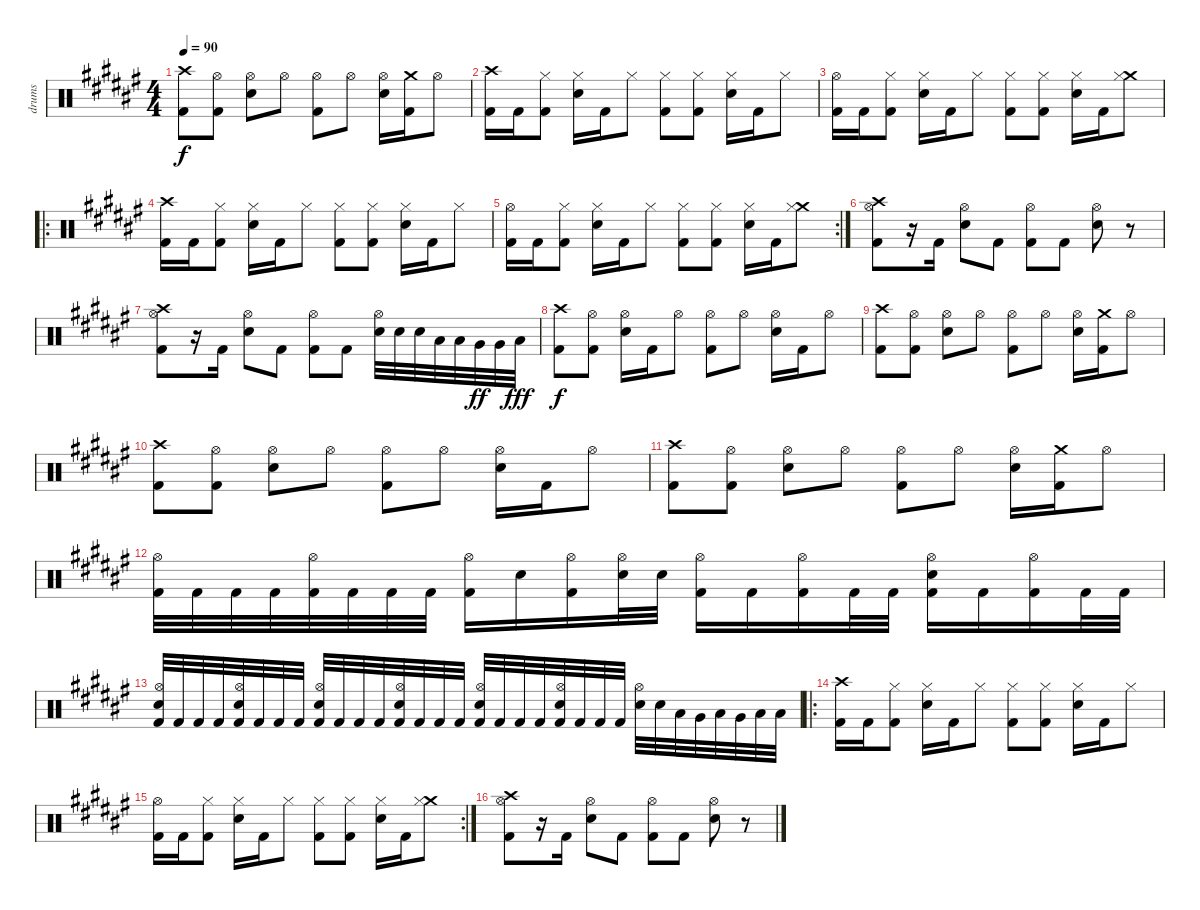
\track ("drums" "drums") {instrument percussion}
\staff {score}
\articulation defaults
\ts (4 4)
\tempo 90
\clef neutral
\ks d#minor
("Crash high (hit)" "Kick (hit) 2").8{dy f} ("Hi-Hat (open)" "Kick (hit) 2").8 ("Hi-Hat (open)" "Electric Snare (hit)").8 "Hi-Hat (open)".8 ("Hi-Hat (open)" "Kick (hit) 2").8 "Hi-Hat (open)".8 ("Hi-Hat (open)" "Electric Snare (hit)").16 ("Crash medium (hit)" "Kick (hit) 2").16 "Hi-Hat (open)".8 |
("Crash high (hit)" "Kick (hit) 2").16 "Kick (hit) 2".16 ("Hi-Hat (closed)" "Kick (hit) 2").8 ("Hi-Hat (closed)" "Electric Snare (hit)").16 "Kick (hit) 2".16 "Hi-Hat (closed)".8 ("Hi-Hat (closed)" "Kick (hit) 2").8 ("Hi-Hat (closed)" "Kick (hit) 2").8 ("Hi-Hat (closed)" "Electric Snare (hit)").16 "Kick (hit) 2".16 "Hi-Hat (closed)".8 |
("Hi-Hat (open)" "Kick (hit) 2").16 "Kick (hit) 2".16 ("Hi-Hat (closed)" "Kick (hit) 2").8 ("Hi-Hat (closed)" "Electric Snare (hit)").16 "Kick (hit) 2".16 "Hi-Hat (closed)".8 ("Hi-Hat (closed)" "Kick (hit) 2").8 ("Hi-Hat (closed)" "Kick (hit) 2").8 ("Hi-Hat (closed)" "Electric Snare (hit)").16 "Kick (hit) 2".16 ("Crash medium (hit)" "Hi-Hat (closed)").8 |
\ro
("Crash high (hit)" "Kick (hit) 2").16 "Kick (hit) 2".16 ("Hi-Hat (closed)" "Kick (hit) 2").8 ("Hi-Hat (closed)" "Electric Snare (hit)").16 "Kick (hit) 2".16 "Hi-Hat (closed)".8 ("Hi-Hat (closed)" "Kick (hit) 2").8 ("Hi-Hat (closed)" "Kick (hit) 2").8 ("Hi-Hat (closed)" "Electric Snare (hit)").16 "Kick (hit) 2".16 "Hi-Hat (closed)".8 |
\rc 2
("Hi-Hat (open)" "Kick (hit) 2").16 "Kick (hit) 2".16 ("Hi-Hat (closed)" "Kick (hit) 2").8 ("Hi-Hat (closed)" "Electric Snare (hit)").16 "Kick (hit) 2".16 "Hi-Hat (closed)".8 ("Hi-Hat (closed)" "Kick (hit) 2").8 ("Hi-Hat (closed)" "Kick (hit) 2").8 ("Hi-Hat (closed)" "Electric Snare (hit)").16 "Kick (hit) 2".16 ("Crash medium (hit)" "Hi-Hat (closed)").8 |
("Crash high (hit)" "Hi-Hat (open)" "Kick (hit) 2").8 r.16 "Kick (hit) 2".16 ("Hi-Hat (open)" "Electric Snare (hit)").8 "Kick (hit) 2".8 ("Hi-Hat (open)" "Kick (hit) 2").8 "Kick (hit) 2".8 ("Hi-Hat (open)" "Electric Snare (hit)").8 r.8 |
("Crash high (hit)" "Hi-Hat (open)" "Kick (hit) 2").8 r.16 "Kick (hit) 2".16 ("Hi-Hat (open)" "Electric Snare (hit)").8 "Kick (hit) 2".8 ("Hi-Hat (open)" "Kick (hit) 2").8 "Kick (hit) 2".8 ("Hi-Hat (open)" "Electric Snare (hit)").32 "Electric Snare (hit)".32 "Electric Snare (hit)".32 "Low Tom (hit)".32 "Low Tom (hit)".32 "Very Low Tom (hit)".32{dy ff} "Very Low Tom (hit)".32 "Low Floor Tom (hit)".32{dy fff} |
("Crash high (hit)" "Kick (hit) 2").8{dy f} ("Hi-Hat (open)" "Kick (hit) 2").8 ("Hi-Hat (open)" "Electric Snare (hit)").16 "Kick (hit) 2".16 "Hi-Hat (open)".8 ("Hi-Hat (open)" "Kick (hit) 2").8 "Hi-Hat (open)".8 ("Hi-Hat (open)" "Electric Snare (hit)").16 "Kick (hit) 2".16 "Hi-Hat (open)".8 |
("Crash high (hit)" "Kick (hit) 2").8 ("Hi-Hat (open)" "Kick (hit) 2").8 ("Hi-Hat (open)" "Electric Snare (hit)").8 "Hi-Hat (open)".8 ("Hi-Hat (open)" "Kick (hit) 2").8 "Hi-Hat (open)".8 ("Hi-Hat (open)" "Electric Snare (hit)").16 ("Crash medium (hit)" "Kick (hit) 2").16 "Hi-Hat (open)".8 |
("Crash high (hit)" "Kick (hit) 2").8 ("Hi-Hat (open)" "Kick (hit) 2").8 ("Hi-Hat (open)" "Electric Snare (hit)").8 "Hi-Hat (open)".8 ("Hi-Hat (open)" "Kick (hit) 2").8 "Hi-Hat (open)".8 ("Hi-Hat (open)" "Electric Snare (hit)").16 "Kick (hit) 2".16 "Hi-Hat (open)".8 |
("Crash high (hit)" "Kick (hit) 2").8 ("Hi-Hat (open)" "Kick (hit) 2").8 ("Hi-Hat (open)" "Electric Snare (hit)").8 "Hi-Hat (open)".8 ("Hi-Hat (open)" "Kick (hit) 2").8 "Hi-Hat (open)".8 ("Hi-Hat (open)" "Electric Snare (hit)").16 ("Crash medium (hit)" "Kick (hit) 2").16 "Hi-Hat (open)".8 |
("Hi-Hat (open)" "Kick (hit) 2").32 "Kick (hit) 2".32 "Kick (hit) 2".32 "Kick (hit) 2".32 ("Hi-Hat (open)" "Kick (hit) 2").32 "Kick (hit) 2".32 "Kick (hit) 2".32 "Kick (hit) 2".32 ("Hi-Hat (open)" "Kick (hit) 2").16 "Electric Snare (hit)".16 ("Hi-Hat (open)" "Kick (hit) 2").16 ("Hi-Hat (open)" "Electric Snare (hit)").32 "Electric Snare (hit)".32 ("Hi-Hat (open)" "Kick (hit) 2").16 "Kick (hit) 2".16 ("Hi-Hat (open)" "Kick (hit) 2").16 "Kick (hit) 2".32 "Kick (hit) 2".32 ("Hi-Hat (open)" "Electric Snare (hit)" "Kick (hit) 2").16 "Kick (hit) 2".16 ("Hi-Hat (open)" "Kick (hit) 2").16 "Kick (hit) 2".32 "Kick (hit) 2".32 |
("Hi-Hat (open)" "Electric Snare (hit)" "Kick (hit) 2").32 "Kick (hit) 2".32 "Kick (hit) 2".32 "Kick (hit) 2".32 ("Hi-Hat (open)" "Electric Snare (hit)" "Kick (hit) 2").32 "Kick (hit) 2".32 "Kick (hit) 2".32 "Kick (hit) 2".32 ("Hi-Hat (open)" "Electric Snare (hit)" "Kick (hit) 2").32 "Kick (hit) 2".32 "Kick (hit) 2".32 "Kick (hit) 2".32 ("Hi-Hat (open)" "Electric Snare (hit)" "Kick (hit) 2").32 "Kick (hit) 2".32 "Kick (hit) 2".32 "Kick (hit) 2".32 ("Hi-Hat (open)" "Electric Snare (hit)" "Kick (hit) 2").32 "Kick (hit) 2".32 "Kick (hit) 2".32 "Kick (hit) 2".32 ("Hi-Hat (open)" "Electric Snare (hit)" "Kick (hit) 2").32 "Kick (hit) 2".32 "Kick (hit) 2".32 "Kick (hit) 2".32 ("Hi-Hat (open)" "Electric Snare (hit)").32 "Electric Snare (hit)".32 "Low Tom (hit)".32 "Very Low Tom (hit)".32 "Low Tom (hit)".32 "Very Low Tom (hit)".32 "Low Floor Tom (hit)".32 "Low Floor Tom (hit)".32 |
\ro
("Crash high (hit)" "Kick (hit) 2").16 "Kick (hit) 2".16 ("Hi-Hat (closed)" "Kick (hit) 2").8 ("Hi-Hat (closed)" "Electric Snare (hit)").16 "Kick (hit) 2".16 "Hi-Hat (closed)".8 ("Hi-Hat (closed)" "Kick (hit) 2").8 ("Hi-Hat (closed)" "Kick (hit) 2").8 ("Hi-Hat (closed)" "Electric Snare (hit)").16 "Kick (hit) 2".16 "Hi-Hat (closed)".8 |
\rc 2
("Hi-Hat (open)" "Kick (hit) 2").16 "Kick (hit) 2".16 ("Hi-Hat (closed)" "Kick (hit) 2").8 ("Hi-Hat (closed)" "Electric Snare (hit)").16 "Kick (hit) 2".16 "Hi-Hat (closed)".8 ("Hi-Hat (closed)" "Kick (hit) 2").8 ("Hi-Hat (closed)" "Kick (hit) 2").8 ("Hi-Hat (closed)" "Electric Snare (hit)").16 "Kick (hit) 2".16 ("Crash medium (hit)" "Hi-Hat (closed)").8 |
("Crash high (hit)" "Hi-Hat (open)" "Kick (hit) 2").8 r.16 "Kick (hit) 2".16 ("Hi-Hat (open)" "Electric Snare (hit)").8 "Kick (hit) 2".8 ("Hi-Hat (open)" "Kick (hit) 2").8 "Kick (hit) 2".8 ("Hi-Hat (open)" "Electric Snare (hit)").8 r.8
